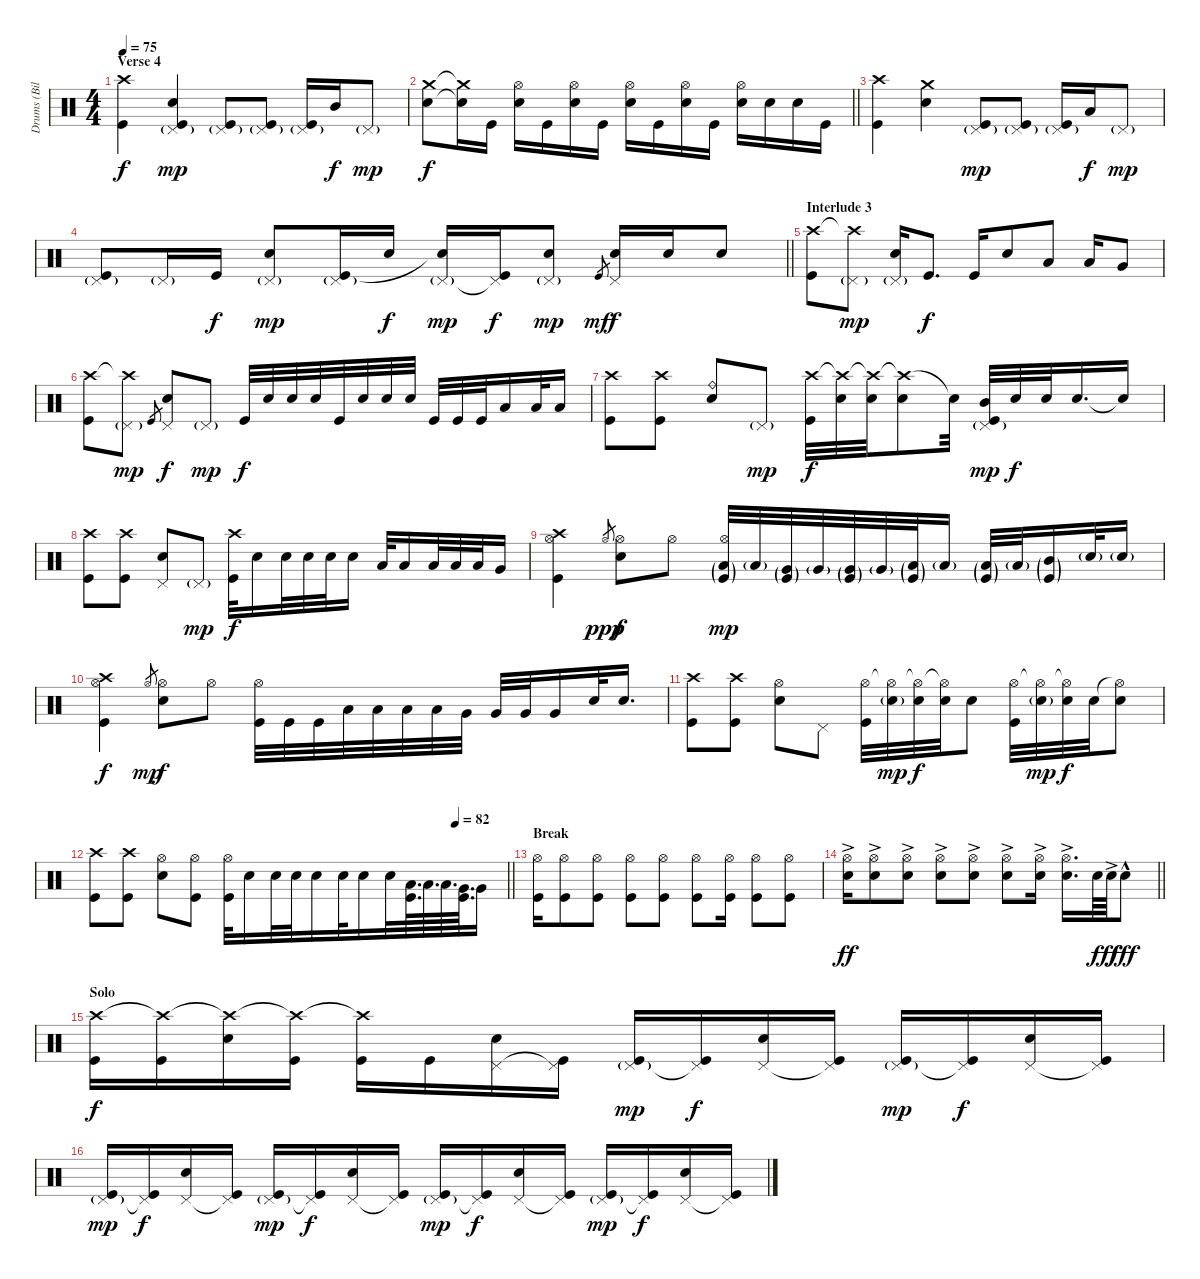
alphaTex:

\track ("Drums (Bill Ward)" "Drums (Bil") {instrument percussion}
\staff {score}
\articulation defaults
\ts (4 4)
\section ("" "Verse 4")
\tempo 75
\clef neutral
\ks c
("Crash high (hit)" "Kick (hit)").4{dy f} ("Pedal Hi-Hat (hit)"{g} "Electric Snare (hit)" "Kick (hit)").4{dy mp} ("Pedal Hi-Hat (hit)"{g} "Kick (hit)").8 ("Pedal Hi-Hat (hit)"{g} "Kick (hit)").8 ("Pedal Hi-Hat (hit)"{g} "Kick (hit)").16 "Mid Tom (hit)".16{dy f} "Pedal Hi-Hat (hit)"{g}.8{dy mp} |
\barLineRight lightlight
("Crash medium (hit)" "Electric Snare (hit)").8{dy f} ("Crash medium (hit)"{t} "Electric Snare (hit)"{t}).16 "Kick (hit)".16 ("Hi-Hat (open)" "Electric Snare (hit)").16 "Kick (hit)".16 ("Hi-Hat (open)" "Electric Snare (hit)").16 "Kick (hit)".16 ("Hi-Hat (open)" "Electric Snare (hit)").16 "Kick (hit)".16 ("Hi-Hat (open)" "Electric Snare (hit)").16 "Kick (hit)".16 ("Hi-Hat (open)" "Electric Snare (hit)").16 "Electric Snare (hit)".16 "Electric Snare (hit)".16 "Kick (hit)".16 |
("Crash high (hit)" "Kick (hit)").4 ("Crash medium (hit)" "Electric Snare (hit)").4 ("Pedal Hi-Hat (hit)"{g} "Kick (hit)").8{dy mp} ("Pedal Hi-Hat (hit)"{g} "Kick (hit)").8 ("Pedal Hi-Hat (hit)"{g} "Kick (hit)").16 "Low Tom (hit)".16{dy f} "Pedal Hi-Hat (hit)"{g}.8{dy mp} |
\barLineRight lightlight
("Pedal Hi-Hat (hit)"{g} "Kick (hit)").8 "Pedal Hi-Hat (hit)"{g}.16 "Kick (hit)".16{dy f} ("Pedal Hi-Hat (hit)"{g} "Electric Snare (hit)").8{dy mp} ("Pedal Hi-Hat (hit)"{g} "Kick (hit)").16 "Electric Snare (hit)".16{dy f} ("Pedal Hi-Hat (hit)"{g} "Electric Snare (hit)"{t}).16{dy mp} ("Pedal Hi-Hat (hit)"{t} "Kick (hit)").16{dy f} ("Pedal Hi-Hat (hit)"{g} "Electric Snare (hit)").8{dy mp} "Kick (hit)".8{gr dy mf} ("Pedal Hi-Hat (hit)" "Electric Snare (hit)").16{dy f} "Electric Snare (hit)".16 "Electric Snare (hit)".8 |
\section ("" "Interlude 3")
("Crash high (hit)" "Kick (hit)").8 ("Crash high (hit)"{t} "Pedal Hi-Hat (hit)"{g}).8{dy mp} ("Pedal Hi-Hat (hit)"{g} "Electric Snare (hit)").16 "Kick (hit)".8{d dy f} "Kick (hit)".16 "Electric Snare (hit)".8 "Low Tom (hit)".8 "Low Tom (hit)".16 "Very Low Tom (hit)".8 |
("Crash high (hit)" "Kick (hit)").8 ("Crash high (hit)"{t} "Pedal Hi-Hat (hit)"{g}).8{dy mp} "Kick (hit)".8{gr} ("Pedal Hi-Hat (hit)" "Electric Snare (hit)").8{dy f} "Pedal Hi-Hat (hit)"{g}.8{dy mp} "Kick (hit)".32{dy f} "Electric Snare (hit)".32 "Electric Snare (hit)".32 "Electric Snare (hit)".32 "Kick (hit)".32 "Electric Snare (hit)".32 "Electric Snare (hit)".32 "Electric Snare (hit)".32 "Kick (hit)".32 "Kick (hit)".32 "Kick (hit)".32 "Low Tom (hit)".16 "Low Tom (hit)".32 "Low Tom (hit)".16 |
("Crash high (hit)" "Kick (hit)").8 ("Crash high (hit)" "Kick (hit)").8 ("Ride (bell)" "Electric Snare (hit)").8 "Pedal Hi-Hat (hit)"{g}.8{dy mp} ("Crash high (hit)" "Kick (hit)").32{dy f} ("Crash high (hit)"{t} "Electric Snare (hit)").32 ("Crash high (hit)"{t} "Electric Snare (hit)").32 ("Crash high (hit)"{t} "Electric Snare (hit)").8 "Electric Snare (hit)"{t}.32 ("Pedal Hi-Hat (hit)"{g} "Mid Tom (hit)" "Kick (hit)").32{dy mp} "Electric Snare (hit)".32{dy f} "Electric Snare (hit)".32 "Electric Snare (hit)".16{d} "Electric Snare (hit)"{t}.16 |
("Crash high (hit)" "Kick (hit)").8 ("Crash high (hit)" "Kick (hit)").8 ("Pedal Hi-Hat (hit)" "Electric Snare (hit)").8 "Pedal Hi-Hat (hit)"{g}.8{dy mp} ("Crash high (hit)" "Kick (hit)").32{dy f} "Electric Snare (hit)".16 "Electric Snare (hit)".32 "Electric Snare (hit)".32 "Electric Snare (hit)".32 "Electric Snare (hit)".16 "Low Tom (hit)".32 "Low Tom (hit)".16 "Low Tom (hit)".32 "Low Tom (hit)".32 "Low Tom (hit)".32 "Very Low Tom (hit)".16 |
("Crash high (hit)" "Hi-Hat (open)" "Kick (hit)").4 "Hi-Hat (open)".8{gr dy ppp} ("Hi-Hat (open)" "Electric Snare (hit)").8{dy f} "Hi-Hat (open)".8 ("Hi-Hat (open)" "Low Floor Tom (hit)"{g} "Kick (hit)"{g}).32{dy mp} "Low Floor Tom (hit)"{g}.32 ("Very Low Tom (hit)"{g} "Kick (hit)"{g}).32 "Very Low Tom (hit)"{g}.32 ("Very Low Tom (hit)"{g} "Kick (hit)"{g}).32 "Very Low Tom (hit)"{g}.32 ("Low Tom (hit)"{g} "Kick (hit)"{g}).32 "Low Tom (hit)"{g}.16 ("Low Tom (hit)"{g} "Kick (hit)"{g}).32 "Low Tom (hit)"{g}.32 ("Mid Tom (hit)"{g} "Kick (hit)"{g}).16 "Electric Snare (hit)"{g}.32 "Electric Snare (hit)"{g}.16 |
("Crash high (hit)" "Hi-Hat (open)" "Kick (hit)").4{dy f} "Hi-Hat (open)".8{gr dy mp} ("Hi-Hat (open)" "Electric Snare (hit)").8{dy f} "Hi-Hat (open)".8 ("Hi-Hat (open)" "Kick (hit)").32 "Kick (hit)".32 "Kick (hit)".32 "Low Tom (hit)".32 "Low Tom (hit)".32 "Low Tom (hit)".32 "Low Tom (hit)".32 "Very Low Tom (hit)".32 "Very Low Tom (hit)".32 "Very Low Tom (hit)".32 "Very Low Tom (hit)".16 "Electric Snare (hit)".32 "Electric Snare (hit)".16{d} |
("Crash high (hit)" "Kick (hit)").8 ("Crash high (hit)" "Kick (hit)").8 ("Hi-Hat (open)" "Electric Snare (hit)").8 "Pedal Hi-Hat (hit)".8 ("Hi-Hat (open)" "Kick (hit)").32 ("Hi-Hat (open)"{t} "Electric Snare (hit)"{g}).32{dy mp} ("Hi-Hat (open)"{t} "Electric Snare (hit)").32{dy f} ("Hi-Hat (open)"{t} "Electric Snare (hit)").32 "Electric Snare (hit)".8 ("Hi-Hat (open)" "Kick (hit)").32 ("Hi-Hat (open)"{t} "Electric Snare (hit)"{g}).32{dy mp} ("Hi-Hat (open)"{t} "Electric Snare (hit)").32{dy f} "Electric Snare (hit)".32 ("Hi-Hat (open)"{t} "Electric Snare (hit)").8 |
\tempo (82 0.875)
\barLineRight lightlight
("Crash high (hit)" "Kick (hit)").8 ("Crash high (hit)" "Kick (hit)").8 ("Hi-Hat (open)" "Electric Snare (hit)").8 ("Hi-Hat (open)" "Kick (hit)").8 ("Hi-Hat (open)" "Kick (hit)").32 "Electric Snare (hit)".16 "Electric Snare (hit)".32 "Electric Snare (hit)".32 "Electric Snare (hit)".16 "Electric Snare (hit)".32{beam merge} "Electric Snare (hit)".16 "Electric Snare (hit)".32 ("Low Tom (hit)" "Kick (hit)").64{d} "Low Tom (hit)".64{d} "Low Tom (hit)".64{d} ("Very Low Tom (hit)" "Kick (hit)").64{d} "Very Low Tom (hit)".16 |
\section ("" "Break")
("Hi-Hat (open)" "Kick (hit)").16 ("Hi-Hat (open)" "Kick (hit)").8 ("Hi-Hat (open)" "Kick (hit)").8 ("Hi-Hat (open)" "Kick (hit)").8 ("Hi-Hat (open)" "Kick (hit)").8 ("Hi-Hat (open)" "Kick (hit)").8 ("Hi-Hat (open)" "Kick (hit)").16 ("Hi-Hat (open)" "Kick (hit)").8 ("Hi-Hat (open)" "Kick (hit)").8 |
\barLineRight lightlight
("Hi-Hat (open)" "Electric Snare (hit)"{ac}).16{dy ff} ("Hi-Hat (open)" "Electric Snare (hit)"{ac}).8 ("Hi-Hat (open)" "Electric Snare (hit)"{ac}).8 ("Hi-Hat (open)" "Electric Snare (hit)"{ac}).8 ("Hi-Hat (open)" "Electric Snare (hit)"{ac}).8 ("Hi-Hat (open)" "Electric Snare (hit)"{ac}).8 ("Hi-Hat (open)" "Electric Snare (hit)"{ac}).16 ("Hi-Hat (open)" "Electric Snare (hit)"{ac}).16{d} "Electric Snare (hit)".64{dy f} "Electric Snare (hit)"{ac}.64{dy ff} "Electric Snare (hit)"{hac}.8{dy fff} |
\section ("" "Solo")
("Crash high (hit)" "Kick (hit)").16{dy f} ("Crash high (hit)"{t} "Kick (hit)").16 ("Crash high (hit)"{t} "Electric Snare (hit)").16 ("Crash high (hit)"{t} "Kick (hit)").16 ("Crash high (hit)"{t} "Kick (hit)").16 "Kick (hit)".16 ("Pedal Hi-Hat (hit)" "Electric Snare (hit)").16 ("Pedal Hi-Hat (hit)"{t} "Kick (hit)").16 ("Pedal Hi-Hat (hit)"{g} "Kick (hit)").16{dy mp} ("Pedal Hi-Hat (hit)"{t} "Kick (hit)").16{dy f} ("Pedal Hi-Hat (hit)" "Electric Snare (hit)").16 ("Pedal Hi-Hat (hit)"{t} "Kick (hit)").16 ("Pedal Hi-Hat (hit)"{g} "Kick (hit)").16{dy mp} ("Pedal Hi-Hat (hit)"{t} "Kick (hit)").16{dy f} ("Pedal Hi-Hat (hit)" "Electric Snare (hit)").16 ("Pedal Hi-Hat (hit)"{t} "Kick (hit)").16 |
("Pedal Hi-Hat (hit)"{g} "Kick (hit)").16{dy mp} ("Pedal Hi-Hat (hit)"{t} "Kick (hit)").16{dy f} ("Pedal Hi-Hat (hit)" "Electric Snare (hit)").16 ("Pedal Hi-Hat (hit)"{t} "Kick (hit)").16 ("Pedal Hi-Hat (hit)"{g} "Kick (hit)").16{dy mp} ("Pedal Hi-Hat (hit)"{t} "Kick (hit)").16{dy f} ("Pedal Hi-Hat (hit)" "Electric Snare (hit)").16 ("Pedal Hi-Hat (hit)"{t} "Kick (hit)").16 ("Pedal Hi-Hat (hit)"{g} "Kick (hit)").16{dy mp} ("Pedal Hi-Hat (hit)"{t} "Kick (hit)").16{dy f} ("Pedal Hi-Hat (hit)" "Electric Snare (hit)").16 ("Pedal Hi-Hat (hit)"{t} "Kick (hit)").16 ("Pedal Hi-Hat (hit)"{g} "Kick (hit)").16{dy mp} ("Pedal Hi-Hat (hit)"{t} "Kick (hit)").16{dy f} ("Pedal Hi-Hat (hit)" "Electric Snare (hit)").16 ("Pedal Hi-Hat (hit)"{t} "Kick (hit)").16
